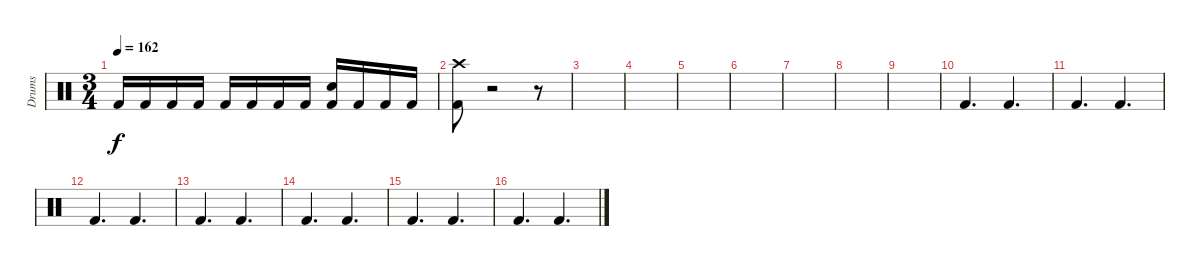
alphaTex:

\track ("Drums" "Drums") {instrument percussion}
\staff {score}
\articulation defaults
\ts (3 4)
\tempo 162
\clef neutral
\ks c "Kick (hit) 2".16{dy f} "Kick (hit) 2".16 "Kick (hit) 2".16 "Kick (hit) 2".16 "Kick (hit) 2".16 "Kick (hit) 2".16 "Kick (hit) 2".16 "Kick (hit) 2".16
("Snare (hit) 2" "Kick (hit) 2").16 "Kick (hit) 2".16 "Kick (hit) 2".16 "Kick (hit) 2".16 |
("Crash high (hit)" "Kick (hit) 2").8 r.2 r.8 |
|
|
|
|
|
|
|
"Kick (hit) 2".4{d} "Kick (hit) 2".4{d} |
"Kick (hit) 2".4{d} "Kick (hit) 2".4{d} |
"Kick (hit) 2".4{d} "Kick (hit) 2".4{d} |
"Kick (hit) 2".4{d} "Kick (hit) 2".4{d} |
"Kick (hit) 2".4{d} "Kick (hit) 2".4{d} |
"Kick (hit) 2".4{d} "Kick (hit) 2".4{d} |
"Kick (hit) 2".4{d} "Kick (hit) 2".4{d}
